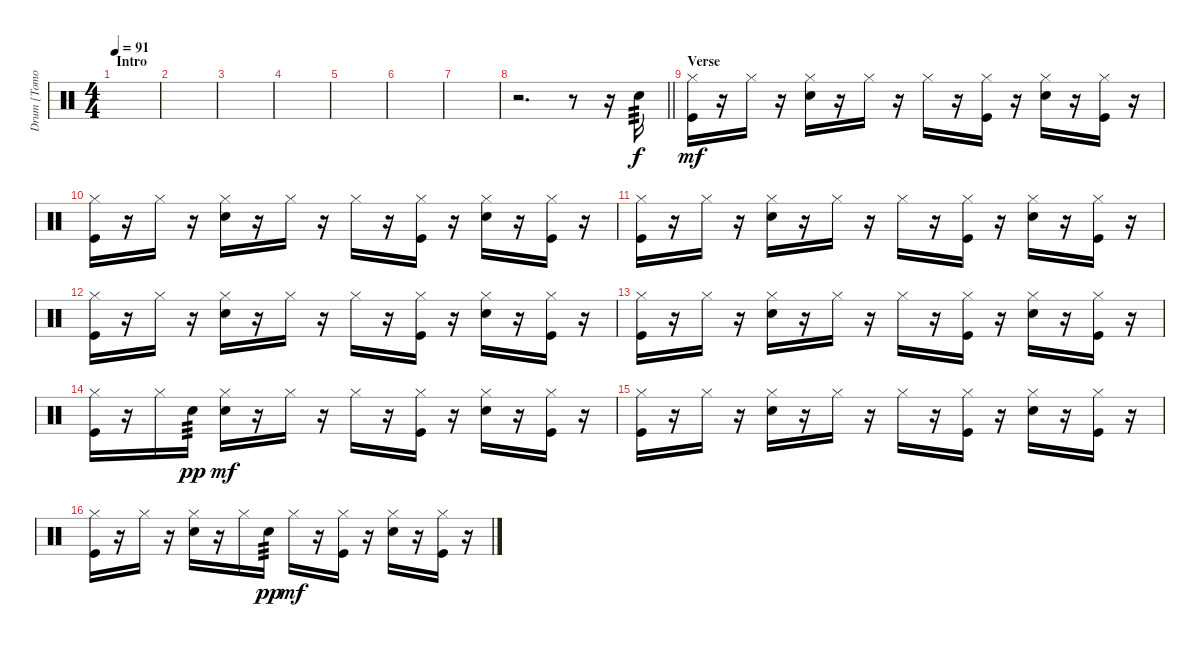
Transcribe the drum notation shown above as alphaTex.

\track ("Drum [Tomoya]" "Drum [Tomo") {instrument percussion}
\staff {score}
\articulation defaults
\ts (4 4)
\section ("" "Intro")
\tempo 91
\clef neutral
\ks c
|
|
|
|
|
|
|
\barLineRight lightlight
r.2{d} r.8 r.16 "Snare (hit) 2".16{tp 3} |
\section ("" "Verse")
("Hi-Hat (closed)" "Kick (hit)").16{dy mf} r.16 "Hi-Hat (closed)".16 r.16 ("Hi-Hat (closed)" "Snare (hit) 2").16 r.16 "Hi-Hat (closed)".16 r.16 "Hi-Hat (closed)".16 r.16 ("Hi-Hat (closed)" "Kick (hit)").16 r.16 ("Hi-Hat (closed)" "Snare (hit) 2").16 r.16 ("Hi-Hat (closed)" "Kick (hit)").16 r.16 |
("Hi-Hat (closed)" "Kick (hit)").16 r.16 "Hi-Hat (closed)".16 r.16 ("Hi-Hat (closed)" "Snare (hit) 2").16 r.16 "Hi-Hat (closed)".16 r.16 "Hi-Hat (closed)".16 r.16 ("Hi-Hat (closed)" "Kick (hit)").16 r.16 ("Hi-Hat (closed)" "Snare (hit) 2").16 r.16 ("Hi-Hat (closed)" "Kick (hit)").16 r.16 |
("Hi-Hat (closed)" "Kick (hit)").16 r.16 "Hi-Hat (closed)".16 r.16 ("Hi-Hat (closed)" "Snare (hit) 2").16 r.16 "Hi-Hat (closed)".16 r.16 "Hi-Hat (closed)".16 r.16 ("Hi-Hat (closed)" "Kick (hit)").16 r.16 ("Hi-Hat (closed)" "Snare (hit) 2").16 r.16 ("Hi-Hat (closed)" "Kick (hit)").16 r.16 |
("Hi-Hat (closed)" "Kick (hit)").16 r.16 "Hi-Hat (closed)".16 r.16 ("Hi-Hat (closed)" "Snare (hit) 2").16 r.16 "Hi-Hat (closed)".16 r.16 "Hi-Hat (closed)".16 r.16 ("Hi-Hat (closed)" "Kick (hit)").16 r.16 ("Hi-Hat (closed)" "Snare (hit) 2").16 r.16 ("Hi-Hat (closed)" "Kick (hit)").16 r.16 |
("Hi-Hat (closed)" "Kick (hit)").16 r.16 "Hi-Hat (closed)".16 r.16 ("Hi-Hat (closed)" "Snare (hit) 2").16 r.16 "Hi-Hat (closed)".16 r.16 "Hi-Hat (closed)".16 r.16 ("Hi-Hat (closed)" "Kick (hit)").16 r.16 ("Hi-Hat (closed)" "Snare (hit) 2").16 r.16 ("Hi-Hat (closed)" "Kick (hit)").16 r.16 |
("Hi-Hat (closed)" "Kick (hit)").16 r.16 "Hi-Hat (closed)".16 "Snare (hit) 2".16{tp 3 dy pp} ("Hi-Hat (closed)" "Snare (hit) 2").16{dy mf} r.16 "Hi-Hat (closed)".16 r.16 "Hi-Hat (closed)".16 r.16 ("Hi-Hat (closed)" "Kick (hit)").16 r.16 ("Hi-Hat (closed)" "Snare (hit) 2").16 r.16 ("Hi-Hat (closed)" "Kick (hit)").16 r.16 |
("Hi-Hat (closed)" "Kick (hit)").16 r.16 "Hi-Hat (closed)".16 r.16 ("Hi-Hat (closed)" "Snare (hit) 2").16 r.16 "Hi-Hat (closed)".16 r.16 "Hi-Hat (closed)".16 r.16 ("Hi-Hat (closed)" "Kick (hit)").16 r.16 ("Hi-Hat (closed)" "Snare (hit) 2").16 r.16 ("Hi-Hat (closed)" "Kick (hit)").16 r.16 |
("Hi-Hat (closed)" "Kick (hit)").16 r.16 "Hi-Hat (closed)".16 r.16 ("Hi-Hat (closed)" "Snare (hit) 2").16 r.16 "Hi-Hat (closed)".16 "Snare (hit) 2".16{tp 3 dy pp} "Hi-Hat (closed)".16{dy mf} r.16 ("Hi-Hat (closed)" "Kick (hit)").16 r.16 ("Hi-Hat (closed)" "Snare (hit) 2").16 r.16 ("Hi-Hat (closed)" "Kick (hit)").16 r.16
